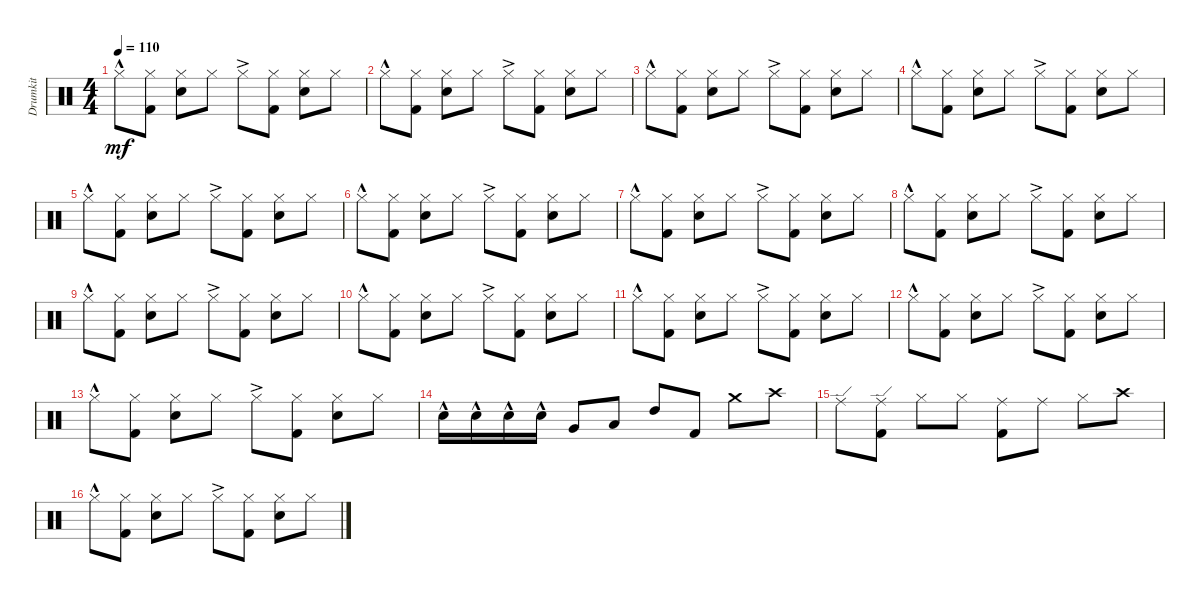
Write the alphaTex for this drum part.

\track ("Drumkit" "Drumkit") {instrument percussion}
\staff {score}
\articulation defaults
\ts (4 4)
\tempo 110
\clef neutral
\ks c "Hi-Hat (closed)"{hac}.8{dy mf}
("Hi-Hat (closed)" "Kick (hit) 2").8 ("Hi-Hat (closed)" "Snare (hit) 2").8 "Hi-Hat (closed)".8 "Hi-Hat (closed)"{ac}.8 ("Hi-Hat (closed)" "Kick (hit) 2").8 ("Hi-Hat (closed)" "Snare (hit) 2").8 "Hi-Hat (closed)".8 |
"Hi-Hat (closed)"{hac}.8 ("Hi-Hat (closed)" "Kick (hit) 2").8 ("Hi-Hat (closed)" "Snare (hit) 2").8 "Hi-Hat (closed)".8 "Hi-Hat (closed)"{ac}.8 ("Hi-Hat (closed)" "Kick (hit) 2").8 ("Hi-Hat (closed)" "Snare (hit) 2").8 "Hi-Hat (closed)".8 |
"Hi-Hat (closed)"{hac}.8 ("Hi-Hat (closed)" "Kick (hit) 2").8 ("Hi-Hat (closed)" "Snare (hit) 2").8 "Hi-Hat (closed)".8 "Hi-Hat (closed)"{ac}.8 ("Hi-Hat (closed)" "Kick (hit) 2").8 ("Hi-Hat (closed)" "Snare (hit) 2").8 "Hi-Hat (closed)".8 |
"Hi-Hat (closed)"{hac}.8 ("Hi-Hat (closed)" "Kick (hit) 2").8 ("Hi-Hat (closed)" "Snare (hit) 2").8 "Hi-Hat (closed)".8 "Hi-Hat (closed)"{ac}.8 ("Hi-Hat (closed)" "Kick (hit) 2").8 ("Hi-Hat (closed)" "Snare (hit) 2").8 "Hi-Hat (closed)".8 |
"Hi-Hat (closed)"{hac}.8 ("Hi-Hat (closed)" "Kick (hit) 2").8 ("Hi-Hat (closed)" "Snare (hit) 2").8 "Hi-Hat (closed)".8 "Hi-Hat (closed)"{ac}.8 ("Hi-Hat (closed)" "Kick (hit) 2").8 ("Hi-Hat (closed)" "Snare (hit) 2").8 "Hi-Hat (closed)".8 |
"Hi-Hat (closed)"{hac}.8 ("Hi-Hat (closed)" "Kick (hit) 2").8 ("Hi-Hat (closed)" "Snare (hit) 2").8 "Hi-Hat (closed)".8 "Hi-Hat (closed)"{ac}.8 ("Hi-Hat (closed)" "Kick (hit) 2").8 ("Hi-Hat (closed)" "Snare (hit) 2").8 "Hi-Hat (closed)".8 |
"Hi-Hat (closed)"{hac}.8 ("Hi-Hat (closed)" "Kick (hit) 2").8 ("Hi-Hat (closed)" "Snare (hit) 2").8 "Hi-Hat (closed)".8 "Hi-Hat (closed)"{ac}.8 ("Hi-Hat (closed)" "Kick (hit) 2").8 ("Hi-Hat (closed)" "Snare (hit) 2").8 "Hi-Hat (closed)".8 |
"Hi-Hat (closed)"{hac}.8 ("Hi-Hat (closed)" "Kick (hit) 2").8 ("Hi-Hat (closed)" "Snare (hit) 2").8 "Hi-Hat (closed)".8 "Hi-Hat (closed)"{ac}.8 ("Hi-Hat (closed)" "Kick (hit) 2").8 ("Hi-Hat (closed)" "Snare (hit) 2").8 "Hi-Hat (closed)".8 |
"Hi-Hat (closed)"{hac}.8 ("Hi-Hat (closed)" "Kick (hit) 2").8 ("Hi-Hat (closed)" "Snare (hit) 2").8 "Hi-Hat (closed)".8 "Hi-Hat (closed)"{ac}.8 ("Hi-Hat (closed)" "Kick (hit) 2").8 ("Hi-Hat (closed)" "Snare (hit) 2").8 "Hi-Hat (closed)".8 |
"Hi-Hat (closed)"{hac}.8 ("Hi-Hat (closed)" "Kick (hit) 2").8 ("Hi-Hat (closed)" "Snare (hit) 2").8 "Hi-Hat (closed)".8 "Hi-Hat (closed)"{ac}.8 ("Hi-Hat (closed)" "Kick (hit) 2").8 ("Hi-Hat (closed)" "Snare (hit) 2").8 "Hi-Hat (closed)".8 |
"Hi-Hat (closed)"{hac}.8 ("Hi-Hat (closed)" "Kick (hit) 2").8 ("Hi-Hat (closed)" "Snare (hit) 2").8 "Hi-Hat (closed)".8 "Hi-Hat (closed)"{ac}.8 ("Hi-Hat (closed)" "Kick (hit) 2").8 ("Hi-Hat (closed)" "Snare (hit) 2").8 "Hi-Hat (closed)".8 |
"Hi-Hat (closed)"{hac}.8 ("Hi-Hat (closed)" "Kick (hit) 2").8 ("Hi-Hat (closed)" "Snare (hit) 2").8 "Hi-Hat (closed)".8 "Hi-Hat (closed)"{ac}.8 ("Hi-Hat (closed)" "Kick (hit) 2").8 ("Hi-Hat (closed)" "Snare (hit) 2").8 "Hi-Hat (closed)".8 |
"Hi-Hat (closed)"{hac}.8 ("Hi-Hat (closed)" "Kick (hit) 2").8 ("Hi-Hat (closed)" "Snare (hit) 2").8 "Hi-Hat (closed)".8 "Hi-Hat (closed)"{ac}.8 ("Hi-Hat (closed)" "Kick (hit) 2").8 ("Hi-Hat (closed)" "Snare (hit) 2").8 "Hi-Hat (closed)".8 |
"Snare (hit) 2"{hac}.16 "Snare (hit) 2"{hac}.16 "Snare (hit) 2"{hac}.16 "Snare (hit) 2"{hac}.16 "Very Low Tom (hit)".8 "Low Tom (hit)".8 "High Tom (hit)".8 "Kick (hit) 2".8 "Crash medium (hit)".8 "Crash high (hit)".8 |
"Ride (edge)".8 ("Ride (edge)" "Kick (hit) 2").8 "Hi-Hat (closed)".8 "Hi-Hat (closed)".8 ("Ride (middle)" "Kick (hit) 2").8 "Ride (middle)".8 "Hi-Hat (closed)".8 "Crash high (hit)".8 |
"Hi-Hat (closed)"{hac}.8 ("Hi-Hat (closed)" "Kick (hit) 2").8 ("Hi-Hat (closed)" "Snare (hit) 2").8 "Hi-Hat (closed)".8 "Hi-Hat (closed)"{ac}.8 ("Hi-Hat (closed)" "Kick (hit) 2").8 ("Hi-Hat (closed)" "Snare (hit) 2").8 "Hi-Hat (closed)".8
